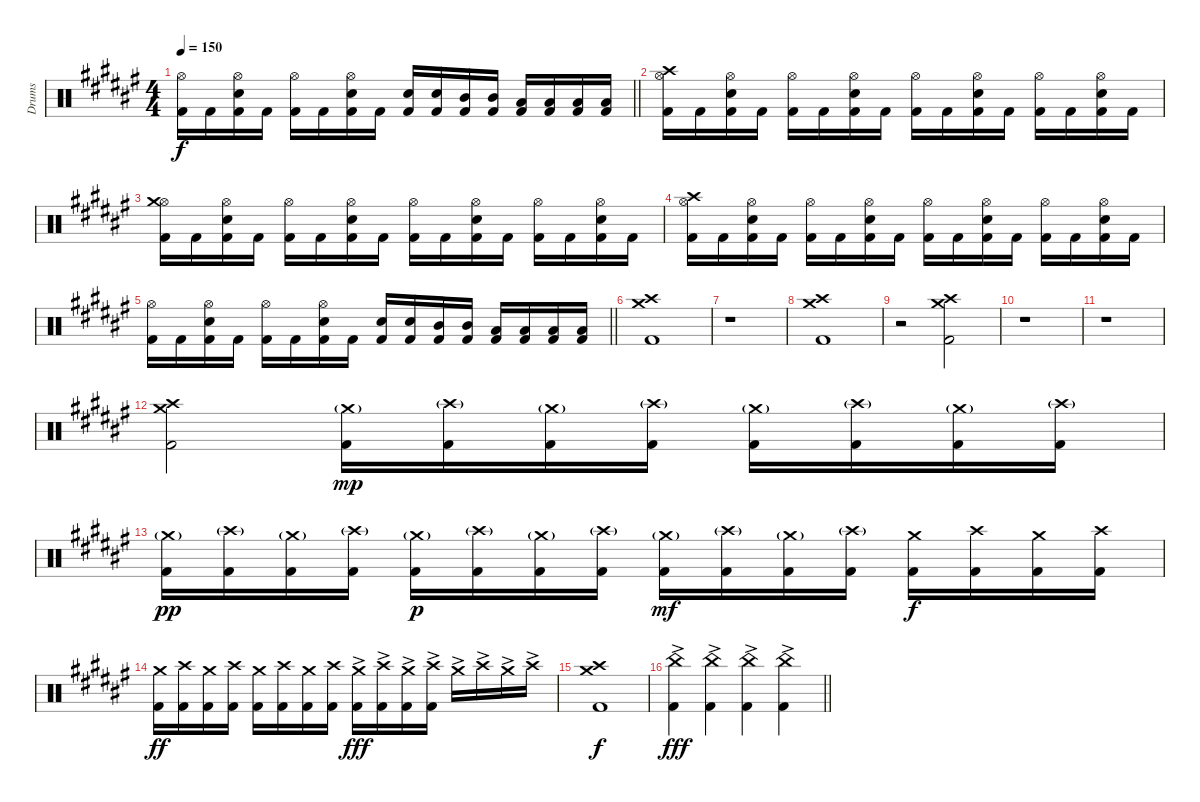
\track ("Drums" "Drums") {instrument percussion}
\staff {score}
\articulation defaults
\ts (4 4)
\tempo 150
\clef neutral
\barLineRight lightlight
\ks d#minor
("Kick (hit) 2" "Hi-Hat (open)").16{dy f} "Kick (hit) 2".16 ("Kick (hit) 2" "Electric Snare (hit)" "Hi-Hat (open)").16 "Kick (hit) 2".16 ("Kick (hit) 2" "Hi-Hat (open)").16 "Kick (hit) 2".16 ("Kick (hit) 2" "Electric Snare (hit)" "Hi-Hat (open)").16 "Kick (hit) 2".16 ("Kick (hit) 2" "Electric Snare (hit)").16 ("Kick (hit) 2" "Electric Snare (hit)").16 ("Kick (hit) 2" "Mid Tom (hit)").16 ("Kick (hit) 2" "Mid Tom (hit)").16 ("Kick (hit) 2" "Low Tom (hit)").16 ("Kick (hit) 2" "Low Tom (hit)").16 ("Kick (hit) 2" "Low Floor Tom (hit)").16 ("Kick (hit) 2" "Low Floor Tom (hit)").16 |
("Kick (hit) 2" "Hi-Hat (open)" "Crash high (hit)").16 "Kick (hit) 2".16 ("Kick (hit) 2" "Electric Snare (hit)" "Hi-Hat (open)").16 "Kick (hit) 2".16 ("Kick (hit) 2" "Hi-Hat (open)").16 "Kick (hit) 2".16 ("Kick (hit) 2" "Electric Snare (hit)" "Hi-Hat (open)").16 "Kick (hit) 2".16 ("Kick (hit) 2" "Hi-Hat (open)").16 "Kick (hit) 2".16 ("Kick (hit) 2" "Electric Snare (hit)" "Hi-Hat (open)").16 "Kick (hit) 2".16 ("Kick (hit) 2" "Hi-Hat (open)").16 "Kick (hit) 2".16 ("Kick (hit) 2" "Electric Snare (hit)" "Hi-Hat (open)").16 "Kick (hit) 2".16 |
("Kick (hit) 2" "Hi-Hat (open)" "Crash medium (hit)").16 "Kick (hit) 2".16 ("Kick (hit) 2" "Electric Snare (hit)" "Hi-Hat (open)").16 "Kick (hit) 2".16 ("Kick (hit) 2" "Hi-Hat (open)").16 "Kick (hit) 2".16 ("Kick (hit) 2" "Electric Snare (hit)" "Hi-Hat (open)").16 "Kick (hit) 2".16 ("Kick (hit) 2" "Hi-Hat (open)").16 "Kick (hit) 2".16 ("Kick (hit) 2" "Electric Snare (hit)" "Hi-Hat (open)").16 "Kick (hit) 2".16 ("Kick (hit) 2" "Hi-Hat (open)").16 "Kick (hit) 2".16 ("Kick (hit) 2" "Electric Snare (hit)" "Hi-Hat (open)").16 "Kick (hit) 2".16 |
("Kick (hit) 2" "Hi-Hat (open)" "Crash high (hit)").16 "Kick (hit) 2".16 ("Kick (hit) 2" "Electric Snare (hit)" "Hi-Hat (open)").16 "Kick (hit) 2".16 ("Kick (hit) 2" "Hi-Hat (open)").16 "Kick (hit) 2".16 ("Kick (hit) 2" "Electric Snare (hit)" "Hi-Hat (open)").16 "Kick (hit) 2".16 ("Kick (hit) 2" "Hi-Hat (open)").16 "Kick (hit) 2".16 ("Kick (hit) 2" "Electric Snare (hit)" "Hi-Hat (open)").16 "Kick (hit) 2".16 ("Kick (hit) 2" "Hi-Hat (open)").16 "Kick (hit) 2".16 ("Kick (hit) 2" "Electric Snare (hit)" "Hi-Hat (open)").16 "Kick (hit) 2".16 |
\barLineRight lightlight
("Kick (hit) 2" "Hi-Hat (open)").16 "Kick (hit) 2".16 ("Kick (hit) 2" "Electric Snare (hit)" "Hi-Hat (open)").16 "Kick (hit) 2".16 ("Kick (hit) 2" "Hi-Hat (open)").16 "Kick (hit) 2".16 ("Kick (hit) 2" "Electric Snare (hit)" "Hi-Hat (open)").16 "Kick (hit) 2".16 ("Kick (hit) 2" "Electric Snare (hit)").16 ("Kick (hit) 2" "Electric Snare (hit)").16 ("Kick (hit) 2" "Mid Tom (hit)").16 ("Kick (hit) 2" "Mid Tom (hit)").16 ("Kick (hit) 2" "Low Tom (hit)").16 ("Kick (hit) 2" "Low Tom (hit)").16 ("Kick (hit) 2" "Low Floor Tom (hit)").16 ("Kick (hit) 2" "Low Floor Tom (hit)").16 |
("Kick (hit) 2" "Crash medium (hit)" "Crash high (hit)").1 |
r.1 |
("Kick (hit) 2" "Crash medium (hit)" "Crash high (hit)").1 |
r.2 ("Kick (hit) 2" "Crash medium (hit)" "Crash high (hit)").2 |
r.1 |
r.1 |
("Kick (hit) 2" "Crash medium (hit)" "Crash high (hit)").2 ("Kick (hit) 2" "Crash medium (hit)"{g}).16{dy mp} ("Kick (hit) 2" "Crash high (hit)"{g}).16 ("Kick (hit) 2" "Crash medium (hit)"{g}).16 ("Kick (hit) 2" "Crash high (hit)"{g}).16 ("Kick (hit) 2" "Crash medium (hit)"{g}).16 ("Kick (hit) 2" "Crash high (hit)"{g}).16 ("Kick (hit) 2" "Crash medium (hit)"{g}).16 ("Kick (hit) 2" "Crash high (hit)"{g}).16 |
("Kick (hit) 2" "Crash medium (hit)"{g}).16{dy pp} ("Kick (hit) 2" "Crash high (hit)"{g}).16 ("Kick (hit) 2" "Crash medium (hit)"{g}).16 ("Kick (hit) 2" "Crash high (hit)"{g}).16 ("Kick (hit) 2" "Crash medium (hit)"{g}).16{dy p} ("Kick (hit) 2" "Crash high (hit)"{g}).16 ("Kick (hit) 2" "Crash medium (hit)"{g}).16 ("Kick (hit) 2" "Crash high (hit)"{g}).16 ("Kick (hit) 2" "Crash medium (hit)"{g}).16{dy mf} ("Kick (hit) 2" "Crash high (hit)"{g}).16 ("Kick (hit) 2" "Crash medium (hit)"{g}).16 ("Kick (hit) 2" "Crash high (hit)"{g}).16 ("Kick (hit) 2" "Crash medium (hit)").16{dy f} ("Kick (hit) 2" "Crash high (hit)").16 ("Kick (hit) 2" "Crash medium (hit)").16 ("Kick (hit) 2" "Crash high (hit)").16 |
("Kick (hit) 2" "Crash medium (hit)").16{dy ff} ("Kick (hit) 2" "Crash high (hit)").16 ("Kick (hit) 2" "Crash medium (hit)").16 ("Kick (hit) 2" "Crash high (hit)").16 ("Kick (hit) 2" "Crash medium (hit)").16 ("Kick (hit) 2" "Crash high (hit)").16 ("Kick (hit) 2" "Crash medium (hit)").16 ("Kick (hit) 2" "Crash high (hit)").16 ("Kick (hit) 2" "Crash medium (hit)"{ac}).16{dy fff} ("Kick (hit) 2" "Crash high (hit)"{ac}).16 ("Kick (hit) 2" "Crash medium (hit)"{ac}).16 ("Kick (hit) 2" "Crash high (hit)"{ac}).16 "Crash medium (hit)"{ac}.16 "Crash high (hit)"{ac}.16 "Crash medium (hit)"{ac}.16 "Crash high (hit)"{ac}.16 |
("Kick (hit) 2" "Crash medium (hit)" "Crash high (hit)").1{dy f} |
\barLineRight lightlight
("Kick (hit) 2" "China (hit)"{ac}).4{dy fff} ("Kick (hit) 2" "China (hit)"{ac}).4 ("Kick (hit) 2" "China (hit)"{ac}).4 ("Kick (hit) 2" "China (hit)"{ac}).4
